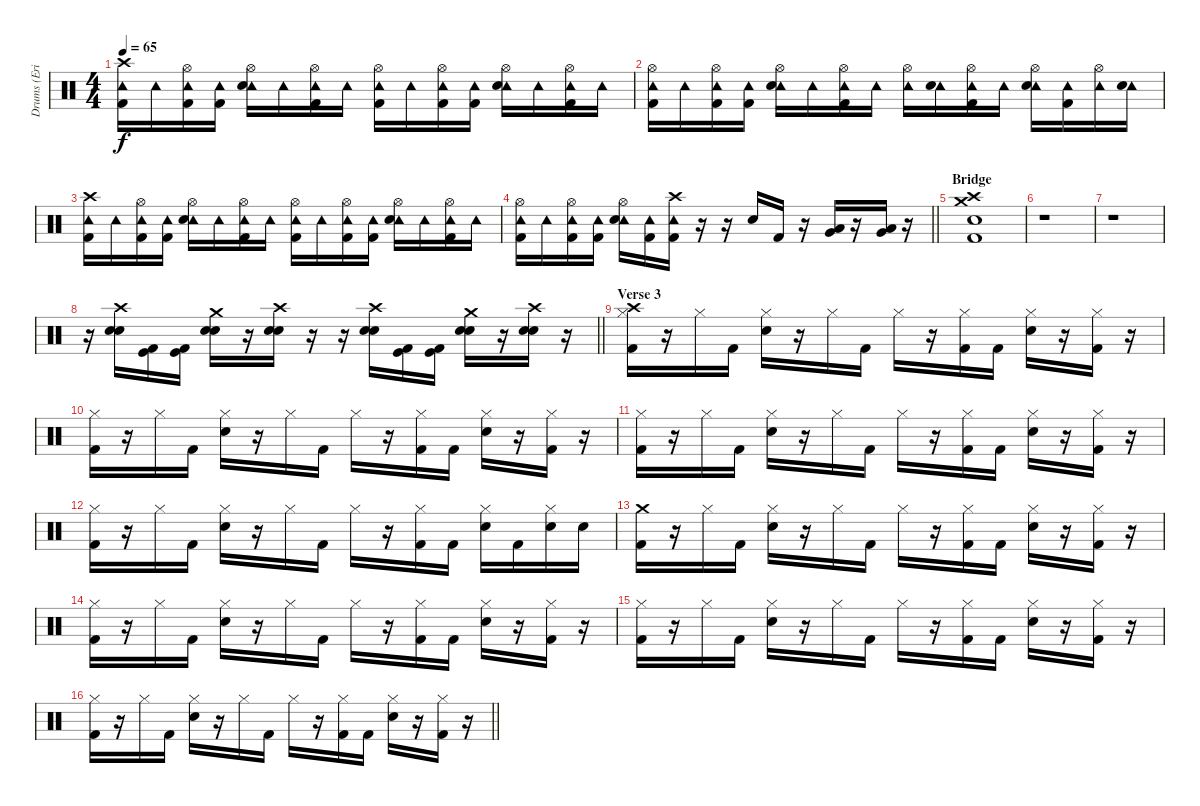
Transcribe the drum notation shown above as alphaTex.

\track ("Drums (Eric Kretz)" "Drums (Eri") {instrument percussion}
\staff {score}
\articulation defaults
\ts (4 4)
\tempo 65
\clef neutral
\ks c
("Crash high (hit)" "Tambourine (hit)" "Kick (hit) 2").16{dy f} "Tambourine (hit)".16 ("Hi-Hat (open)" "Tambourine (hit)" "Kick (hit) 2").16 ("Tambourine (hit)" "Kick (hit) 2").16 ("Hi-Hat (open)" "Tambourine (hit)" "Electric Snare (hit)").16 "Tambourine (hit)".16 ("Hi-Hat (open)" "Tambourine (hit)" "Kick (hit) 2").16 "Tambourine (hit)".16 ("Hi-Hat (open)" "Tambourine (hit)" "Kick (hit) 2").16 "Tambourine (hit)".16 ("Hi-Hat (open)" "Tambourine (hit)" "Kick (hit) 2").16 ("Tambourine (hit)" "Kick (hit) 2").16 ("Hi-Hat (open)" "Tambourine (hit)" "Electric Snare (hit)").16 "Tambourine (hit)".16 ("Hi-Hat (open)" "Tambourine (hit)" "Kick (hit) 2").16 "Tambourine (hit)".16 |
("Hi-Hat (open)" "Tambourine (hit)" "Kick (hit) 2").16 "Tambourine (hit)".16 ("Hi-Hat (open)" "Tambourine (hit)" "Kick (hit) 2").16 ("Tambourine (hit)" "Kick (hit) 2").16 ("Hi-Hat (open)" "Tambourine (hit)" "Electric Snare (hit)").16 "Tambourine (hit)".16 ("Hi-Hat (open)" "Tambourine (hit)" "Kick (hit) 2").16 "Tambourine (hit)".16 ("Hi-Hat (open)" "Tambourine (hit)").16 ("Tambourine (hit)" "Electric Snare (hit)").16 ("Hi-Hat (open)" "Tambourine (hit)" "Kick (hit) 2").16 "Tambourine (hit)".16 ("Hi-Hat (open)" "Tambourine (hit)" "Electric Snare (hit)").16 ("Tambourine (hit)" "Kick (hit) 2").16 ("Hi-Hat (open)" "Tambourine (hit)").16 ("Tambourine (hit)" "Electric Snare (hit)").16 |
("Crash high (hit)" "Tambourine (hit)" "Kick (hit) 2").16 "Tambourine (hit)".16 ("Hi-Hat (open)" "Tambourine (hit)" "Kick (hit) 2").16 ("Tambourine (hit)" "Kick (hit) 2").16 ("Hi-Hat (open)" "Tambourine (hit)" "Electric Snare (hit)").16 "Tambourine (hit)".16 ("Hi-Hat (open)" "Tambourine (hit)" "Kick (hit) 2").16 "Tambourine (hit)".16 ("Hi-Hat (open)" "Tambourine (hit)" "Kick (hit) 2").16 "Tambourine (hit)".16 ("Hi-Hat (open)" "Tambourine (hit)" "Kick (hit) 2").16 ("Tambourine (hit)" "Kick (hit) 2").16 ("Hi-Hat (open)" "Tambourine (hit)" "Electric Snare (hit)").16 "Tambourine (hit)".16 ("Hi-Hat (open)" "Tambourine (hit)" "Kick (hit) 2").16 "Tambourine (hit)".16 |
\barLineRight lightlight
("Hi-Hat (open)" "Tambourine (hit)" "Kick (hit) 2").16 "Tambourine (hit)".16 ("Hi-Hat (open)" "Tambourine (hit)" "Kick (hit) 2").16 ("Tambourine (hit)" "Kick (hit) 2").16 ("Hi-Hat (open)" "Tambourine (hit)" "Electric Snare (hit)").16 ("Tambourine (hit)" "Kick (hit) 2").16 ("Crash high (hit)" "Tambourine (hit)" "Kick (hit) 2").16 r.16 r.16 "Electric Snare (hit)".16 "Kick (hit) 2".16 r.16 ("Low Tom (hit)" "Very Low Tom (hit)").16 r.16 ("Very Low Tom (hit)" "Low Floor Tom (hit)").16 r.16 |
\section ("" "Bridge")
("Crash high (hit)" "Crash medium (hit)" "Electric Snare (hit)" "Kick (hit) 2").1 |
r.1 |
r.1 |
\barLineRight lightlight
r.16 ("Crash high (hit)" "Snare (hit) 2" "Electric Snare (hit)").16 ("Kick (hit)" "Kick (hit) 2").16 ("Kick (hit)" "Kick (hit) 2").16 ("Crash medium (hit)" "Snare (hit) 2" "Electric Snare (hit)").16 r.16 ("Crash high (hit)" "Snare (hit) 2" "Electric Snare (hit)").16 r.16 r.16 ("Crash high (hit)" "Snare (hit) 2" "Electric Snare (hit)").16 ("Kick (hit)" "Kick (hit) 2").16 ("Kick (hit)" "Kick (hit) 2").16 ("Crash medium (hit)" "Snare (hit) 2" "Electric Snare (hit)").16 r.16 ("Crash high (hit)" "Snare (hit) 2" "Electric Snare (hit)").16 r.16 |
\section ("" "Verse 3")
("Hi-Hat (closed)" "Crash high (hit)" "Kick (hit) 2").16 r.16 "Hi-Hat (closed)".16 "Kick (hit) 2".16 ("Hi-Hat (closed)" "Electric Snare (hit)").16 r.16 "Hi-Hat (closed)".16 "Kick (hit) 2".16 "Hi-Hat (closed)".16 r.16 ("Hi-Hat (closed)" "Kick (hit) 2").16 "Kick (hit) 2".16 ("Hi-Hat (closed)" "Electric Snare (hit)").16 r.16 ("Hi-Hat (closed)" "Kick (hit) 2").16 r.16 |
("Hi-Hat (closed)" "Kick (hit) 2").16 r.16 "Hi-Hat (closed)".16 "Kick (hit) 2".16 ("Hi-Hat (closed)" "Electric Snare (hit)").16 r.16 "Hi-Hat (closed)".16 "Kick (hit) 2".16 "Hi-Hat (closed)".16 r.16 ("Hi-Hat (closed)" "Kick (hit) 2").16 "Kick (hit) 2".16 ("Hi-Hat (closed)" "Electric Snare (hit)").16 r.16 ("Hi-Hat (closed)" "Kick (hit) 2").16 r.16 |
("Hi-Hat (closed)" "Kick (hit) 2").16 r.16 "Hi-Hat (closed)".16 "Kick (hit) 2".16 ("Hi-Hat (closed)" "Electric Snare (hit)").16 r.16 "Hi-Hat (closed)".16 "Kick (hit) 2".16 "Hi-Hat (closed)".16 r.16 ("Hi-Hat (closed)" "Kick (hit) 2").16 "Kick (hit) 2".16 ("Hi-Hat (closed)" "Electric Snare (hit)").16 r.16 ("Hi-Hat (closed)" "Kick (hit) 2").16 r.16 |
("Hi-Hat (closed)" "Kick (hit) 2").16 r.16 "Hi-Hat (closed)".16 "Kick (hit) 2".16 ("Hi-Hat (closed)" "Electric Snare (hit)").16 r.16 "Hi-Hat (closed)".16 "Kick (hit) 2".16 "Hi-Hat (closed)".16 r.16 ("Hi-Hat (closed)" "Kick (hit) 2").16 "Kick (hit) 2".16 ("Hi-Hat (closed)" "Electric Snare (hit)").16 "Kick (hit) 2".16 ("Hi-Hat (closed)" "Electric Snare (hit)").16 "Electric Snare (hit)".16 |
("Crash medium (hit)" "Kick (hit) 2").16 r.16 "Hi-Hat (closed)".16 "Kick (hit) 2".16 ("Hi-Hat (closed)" "Electric Snare (hit)").16 r.16 "Hi-Hat (closed)".16 "Kick (hit) 2".16 "Hi-Hat (closed)".16 r.16 ("Hi-Hat (closed)" "Kick (hit) 2").16 "Kick (hit) 2".16 ("Hi-Hat (closed)" "Electric Snare (hit)").16 r.16 ("Hi-Hat (closed)" "Kick (hit) 2").16 r.16 |
("Hi-Hat (closed)" "Kick (hit) 2").16 r.16 "Hi-Hat (closed)".16 "Kick (hit) 2".16 ("Hi-Hat (closed)" "Electric Snare (hit)").16 r.16 "Hi-Hat (closed)".16 "Kick (hit) 2".16 "Hi-Hat (closed)".16 r.16 ("Hi-Hat (closed)" "Kick (hit) 2").16 "Kick (hit) 2".16 ("Hi-Hat (closed)" "Electric Snare (hit)").16 r.16 ("Hi-Hat (closed)" "Kick (hit) 2").16 r.16 |
("Hi-Hat (closed)" "Kick (hit) 2").16 r.16 "Hi-Hat (closed)".16 "Kick (hit) 2".16 ("Hi-Hat (closed)" "Electric Snare (hit)").16 r.16 "Hi-Hat (closed)".16 "Kick (hit) 2".16 "Hi-Hat (closed)".16 r.16 ("Hi-Hat (closed)" "Kick (hit) 2").16 "Kick (hit) 2".16 ("Hi-Hat (closed)" "Electric Snare (hit)").16 r.16 ("Hi-Hat (closed)" "Kick (hit) 2").16 r.16 |
\barLineRight lightlight
("Hi-Hat (closed)" "Kick (hit) 2").16 r.16 "Hi-Hat (closed)".16 "Kick (hit) 2".16 ("Hi-Hat (closed)" "Electric Snare (hit)").16 r.16 "Hi-Hat (closed)".16 "Kick (hit) 2".16 "Hi-Hat (closed)".16 r.16 ("Hi-Hat (closed)" "Kick (hit) 2").16 "Kick (hit) 2".16 ("Hi-Hat (closed)" "Electric Snare (hit)").16 r.16 ("Hi-Hat (closed)" "Kick (hit) 2").16 r.16
